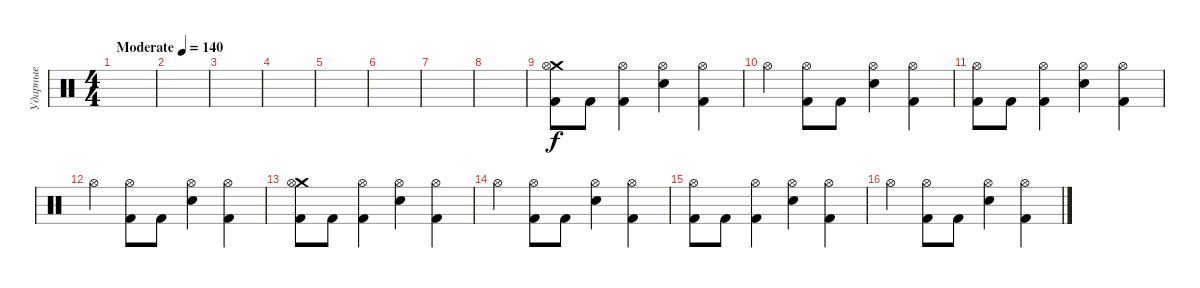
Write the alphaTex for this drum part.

\track ("Ударные" "Ударные") {instrument percussion}
\staff {score}
\articulation defaults
\ts (4 4)
\tempo (140 "Moderate")
\clef neutral
\ks c
|
|
|
|
|
|
|
|
("Crash medium (hit)" "Hi-Hat (open)" "Kick (hit) 2").8 "Kick (hit) 2".8 ("Hi-Hat (open)" "Kick (hit) 2").4 ("Hi-Hat (open)" "Electric Snare (hit)").4 ("Hi-Hat (open)" "Kick (hit) 2").4 |
"Hi-Hat (open)".4 ("Hi-Hat (open)" "Kick (hit) 2").8 "Kick (hit) 2".8 ("Hi-Hat (open)" "Electric Snare (hit)").4 ("Hi-Hat (open)" "Kick (hit) 2").4 |
("Hi-Hat (open)" "Kick (hit) 2").8 "Kick (hit) 2".8 ("Hi-Hat (open)" "Kick (hit) 2").4 ("Hi-Hat (open)" "Electric Snare (hit)").4 ("Hi-Hat (open)" "Kick (hit) 2").4 |
"Hi-Hat (open)".4 ("Hi-Hat (open)" "Kick (hit) 2").8 "Kick (hit) 2".8 ("Hi-Hat (open)" "Electric Snare (hit)").4 ("Hi-Hat (open)" "Kick (hit) 2").4 |
("Crash medium (hit)" "Hi-Hat (open)" "Kick (hit) 2").8 "Kick (hit) 2".8 ("Hi-Hat (open)" "Kick (hit) 2").4 ("Hi-Hat (open)" "Electric Snare (hit)").4 ("Hi-Hat (open)" "Kick (hit) 2").4 |
"Hi-Hat (open)".4 ("Hi-Hat (open)" "Kick (hit) 2").8 "Kick (hit) 2".8 ("Hi-Hat (open)" "Electric Snare (hit)").4 ("Hi-Hat (open)" "Kick (hit) 2").4 |
("Hi-Hat (open)" "Kick (hit) 2").8 "Kick (hit) 2".8 ("Hi-Hat (open)" "Kick (hit) 2").4 ("Hi-Hat (open)" "Electric Snare (hit)").4 ("Hi-Hat (open)" "Kick (hit) 2").4 |
"Hi-Hat (open)".4 ("Hi-Hat (open)" "Kick (hit) 2").8 "Kick (hit) 2".8 ("Hi-Hat (open)" "Electric Snare (hit)").4 ("Hi-Hat (open)" "Kick (hit) 2").4
